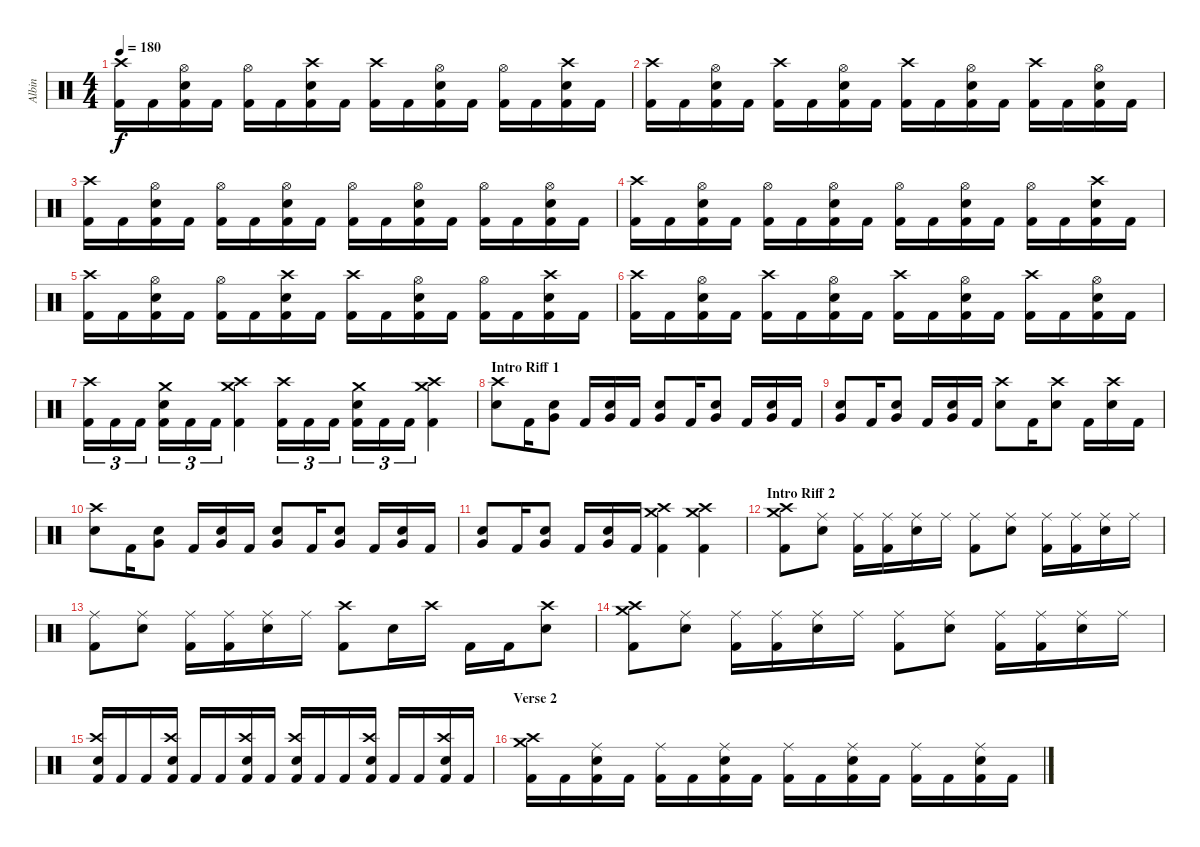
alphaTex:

\track ("Albin" "Albin") {instrument percussion}
\staff {score}
\articulation defaults
\ts (4 4)
\tempo 180
\clef neutral
\ks c
("Kick (hit) 2" "Crash high (hit)").16{dy f} "Kick (hit) 2".16 ("Kick (hit) 2" "Electric Snare (hit)" "Hi-Hat (open)").16 "Kick (hit) 2".16 ("Kick (hit) 2" "Hi-Hat (open)").16 "Kick (hit) 2".16 ("Kick (hit) 2" "Electric Snare (hit)" "Crash high (hit)").16 "Kick (hit) 2".16 ("Kick (hit) 2" "Crash high (hit)").16 "Kick (hit) 2".16 ("Kick (hit) 2" "Electric Snare (hit)" "Hi-Hat (open)").16 "Kick (hit) 2".16 ("Kick (hit) 2" "Hi-Hat (open)").16 "Kick (hit) 2".16 ("Kick (hit) 2" "Electric Snare (hit)" "Crash high (hit)").16 "Kick (hit) 2".16 |
("Kick (hit) 2" "Crash high (hit)").16 "Kick (hit) 2".16 ("Kick (hit) 2" "Electric Snare (hit)" "Hi-Hat (open)").16 "Kick (hit) 2".16 ("Kick (hit) 2" "Crash high (hit)").16 "Kick (hit) 2".16 ("Kick (hit) 2" "Electric Snare (hit)" "Hi-Hat (open)").16 "Kick (hit) 2".16 ("Kick (hit) 2" "Crash high (hit)").16 "Kick (hit) 2".16 ("Kick (hit) 2" "Electric Snare (hit)" "Hi-Hat (open)").16 "Kick (hit) 2".16 ("Kick (hit) 2" "Crash high (hit)").16 "Kick (hit) 2".16 ("Kick (hit) 2" "Electric Snare (hit)" "Hi-Hat (open)").16 "Kick (hit) 2".16 |
("Kick (hit) 2" "Crash high (hit)").16 "Kick (hit) 2".16 ("Kick (hit) 2" "Electric Snare (hit)" "Hi-Hat (open)").16 "Kick (hit) 2".16 ("Kick (hit) 2" "Hi-Hat (open)").16 "Kick (hit) 2".16 ("Kick (hit) 2" "Electric Snare (hit)" "Hi-Hat (open)").16 "Kick (hit) 2".16 ("Kick (hit) 2" "Hi-Hat (open)").16 "Kick (hit) 2".16 ("Kick (hit) 2" "Electric Snare (hit)" "Hi-Hat (open)").16 "Kick (hit) 2".16 ("Kick (hit) 2" "Hi-Hat (open)").16 "Kick (hit) 2".16 ("Kick (hit) 2" "Electric Snare (hit)" "Hi-Hat (open)").16 "Kick (hit) 2".16 |
("Kick (hit) 2" "Crash high (hit)").16 "Kick (hit) 2".16 ("Kick (hit) 2" "Electric Snare (hit)" "Hi-Hat (open)").16 "Kick (hit) 2".16 ("Kick (hit) 2" "Hi-Hat (open)").16 "Kick (hit) 2".16 ("Kick (hit) 2" "Electric Snare (hit)" "Hi-Hat (open)").16 "Kick (hit) 2".16 ("Kick (hit) 2" "Hi-Hat (open)").16 "Kick (hit) 2".16 ("Kick (hit) 2" "Electric Snare (hit)" "Hi-Hat (open)").16 "Kick (hit) 2".16 ("Kick (hit) 2" "Hi-Hat (open)").16 "Kick (hit) 2".16 ("Kick (hit) 2" "Electric Snare (hit)" "Crash high (hit)").16 "Kick (hit) 2".16 |
("Kick (hit) 2" "Crash high (hit)").16 "Kick (hit) 2".16 ("Kick (hit) 2" "Electric Snare (hit)" "Hi-Hat (open)").16 "Kick (hit) 2".16 ("Kick (hit) 2" "Hi-Hat (open)").16 "Kick (hit) 2".16 ("Kick (hit) 2" "Electric Snare (hit)" "Crash high (hit)").16 "Kick (hit) 2".16 ("Kick (hit) 2" "Crash high (hit)").16 "Kick (hit) 2".16 ("Kick (hit) 2" "Electric Snare (hit)" "Hi-Hat (open)").16 "Kick (hit) 2".16 ("Kick (hit) 2" "Hi-Hat (open)").16 "Kick (hit) 2".16 ("Kick (hit) 2" "Electric Snare (hit)" "Crash high (hit)").16 "Kick (hit) 2".16 |
("Kick (hit) 2" "Crash high (hit)").16 "Kick (hit) 2".16 ("Kick (hit) 2" "Electric Snare (hit)" "Hi-Hat (open)").16 "Kick (hit) 2".16 ("Kick (hit) 2" "Crash high (hit)").16 "Kick (hit) 2".16 ("Kick (hit) 2" "Electric Snare (hit)" "Hi-Hat (open)").16 "Kick (hit) 2".16 ("Kick (hit) 2" "Crash high (hit)").16 "Kick (hit) 2".16 ("Kick (hit) 2" "Electric Snare (hit)" "Hi-Hat (open)").16 "Kick (hit) 2".16 ("Kick (hit) 2" "Crash high (hit)").16 "Kick (hit) 2".16 ("Kick (hit) 2" "Electric Snare (hit)" "Hi-Hat (open)").16 "Kick (hit) 2".16 |
("Kick (hit) 2" "Crash high (hit)").16{tu (3 2)} "Kick (hit) 2".16{tu (3 2)} "Kick (hit) 2".16{tu (3 2)} ("Kick (hit) 2" "Electric Snare (hit)" "Crash medium (hit)").16{tu (3 2)} "Kick (hit) 2".16{tu (3 2)} "Kick (hit) 2".16{tu (3 2)} ("Kick (hit) 2" "Crash high (hit)" "Crash medium (hit)").4 ("Kick (hit) 2" "Crash high (hit)").16{tu (3 2)} "Kick (hit) 2".16{tu (3 2)} "Kick (hit) 2".16{tu (3 2)} ("Kick (hit) 2" "Electric Snare (hit)" "Crash medium (hit)").16{tu (3 2)} "Kick (hit) 2".16{tu (3 2)} "Kick (hit) 2".16{tu (3 2)} ("Kick (hit) 2" "Crash high (hit)" "Crash medium (hit)").4 |
\section ("" "Intro Riff 1")
("Electric Snare (hit)" "Crash high (hit)").8 "Kick (hit) 2".16 ("Electric Snare (hit)" "Very Low Tom (hit)").8 "Kick (hit) 2".16 ("Electric Snare (hit)" "Very Low Tom (hit)").16 "Kick (hit) 2".16 ("Electric Snare (hit)" "Very Low Tom (hit)").8 "Kick (hit) 2".16 ("Electric Snare (hit)" "Very Low Tom (hit)").8 "Kick (hit) 2".16 ("Electric Snare (hit)" "Very Low Tom (hit)").16 "Kick (hit) 2".16 |
("Electric Snare (hit)" "Very Low Tom (hit)").8 "Kick (hit) 2".16 ("Electric Snare (hit)" "Very Low Tom (hit)").8 "Kick (hit) 2".16 ("Electric Snare (hit)" "Very Low Tom (hit)").16 "Kick (hit) 2".16 ("Electric Snare (hit)" "Crash high (hit)").8 "Kick (hit) 2".16 ("Electric Snare (hit)" "Crash high (hit)").8 "Kick (hit) 2".16 ("Electric Snare (hit)" "Crash high (hit)").16 "Kick (hit) 2".16 |
("Electric Snare (hit)" "Crash high (hit)").8 "Kick (hit) 2".16 ("Electric Snare (hit)" "Very Low Tom (hit)").8 "Kick (hit) 2".16 ("Electric Snare (hit)" "Very Low Tom (hit)").16 "Kick (hit) 2".16 ("Electric Snare (hit)" "Very Low Tom (hit)").8 "Kick (hit) 2".16 ("Electric Snare (hit)" "Very Low Tom (hit)").8 "Kick (hit) 2".16 ("Electric Snare (hit)" "Very Low Tom (hit)").16 "Kick (hit) 2".16 |
("Electric Snare (hit)" "Very Low Tom (hit)").8 "Kick (hit) 2".16 ("Electric Snare (hit)" "Very Low Tom (hit)").8 "Kick (hit) 2".16 ("Electric Snare (hit)" "Very Low Tom (hit)").16 "Kick (hit) 2".16 ("Kick (hit) 2" "Crash high (hit)" "Crash medium (hit)").4 ("Kick (hit) 2" "Crash high (hit)" "Crash medium (hit)").4 |
\section ("" "Intro Riff 2")
("Kick (hit) 2" "Crash high (hit)" "Crash medium (hit)").8 ("Electric Snare (hit)" "Ride (middle)").8 ("Kick (hit) 2" "Ride (middle)").16 ("Kick (hit) 2" "Ride (middle)").16 ("Electric Snare (hit)" "Ride (middle)").16 "Ride (middle)".16 ("Kick (hit) 2" "Ride (middle)").8 ("Electric Snare (hit)" "Ride (middle)").8 ("Kick (hit) 2" "Ride (middle)").16 ("Kick (hit) 2" "Ride (middle)").16 ("Electric Snare (hit)" "Ride (middle)").16 "Ride (middle)".16 |
("Kick (hit) 2" "Ride (middle)").8 ("Electric Snare (hit)" "Ride (middle)").8 ("Kick (hit) 2" "Ride (middle)").16 ("Kick (hit) 2" "Ride (middle)").16 ("Electric Snare (hit)" "Ride (middle)").16 "Ride (middle)".16 ("Kick (hit) 2" "Crash high (hit)").8 "Electric Snare (hit)".16 "Crash high (hit)".16 "Kick (hit) 2".16 "Kick (hit) 2".16 ("Electric Snare (hit)" "Crash high (hit)").8 |
("Kick (hit) 2" "Crash high (hit)" "Crash medium (hit)").8 ("Electric Snare (hit)" "Ride (middle)").8 ("Kick (hit) 2" "Ride (middle)").16 ("Kick (hit) 2" "Ride (middle)").16 ("Electric Snare (hit)" "Ride (middle)").16 "Ride (middle)".16 ("Kick (hit) 2" "Ride (middle)").8 ("Electric Snare (hit)" "Ride (middle)").8 ("Kick (hit) 2" "Ride (middle)").16 ("Kick (hit) 2" "Ride (middle)").16 ("Electric Snare (hit)" "Ride (middle)").16 "Ride (middle)".16 |
("Kick (hit) 2" "Electric Snare (hit)" "Crash high (hit)").16 "Kick (hit) 2".16 "Kick (hit) 2".16 ("Kick (hit) 2" "Electric Snare (hit)" "Crash high (hit)").16 "Kick (hit) 2".16 "Kick (hit) 2".16 ("Kick (hit) 2" "Electric Snare (hit)" "Crash high (hit)").16 "Kick (hit) 2".16 ("Kick (hit) 2" "Electric Snare (hit)" "Crash high (hit)").16 "Kick (hit) 2".16 "Kick (hit) 2".16 ("Kick (hit) 2" "Electric Snare (hit)" "Crash high (hit)").16 "Kick (hit) 2".16 "Kick (hit) 2".16 ("Kick (hit) 2" "Electric Snare (hit)" "Crash high (hit)").16 "Kick (hit) 2".16 |
\section ("" "Verse 2")
("Kick (hit) 2" "Crash high (hit)" "Crash medium (hit)").16 "Kick (hit) 2".16 ("Kick (hit) 2" "Electric Snare (hit)" "Ride (middle)").16 "Kick (hit) 2".16 ("Kick (hit) 2" "Ride (middle)").16 "Kick (hit) 2".16 ("Kick (hit) 2" "Electric Snare (hit)" "Ride (middle)").16 "Kick (hit) 2".16 ("Kick (hit) 2" "Ride (middle)").16 "Kick (hit) 2".16 ("Kick (hit) 2" "Electric Snare (hit)" "Ride (middle)").16 "Kick (hit) 2".16 ("Kick (hit) 2" "Ride (middle)").16 "Kick (hit) 2".16 ("Kick (hit) 2" "Electric Snare (hit)" "Ride (middle)").16 "Kick (hit) 2".16
